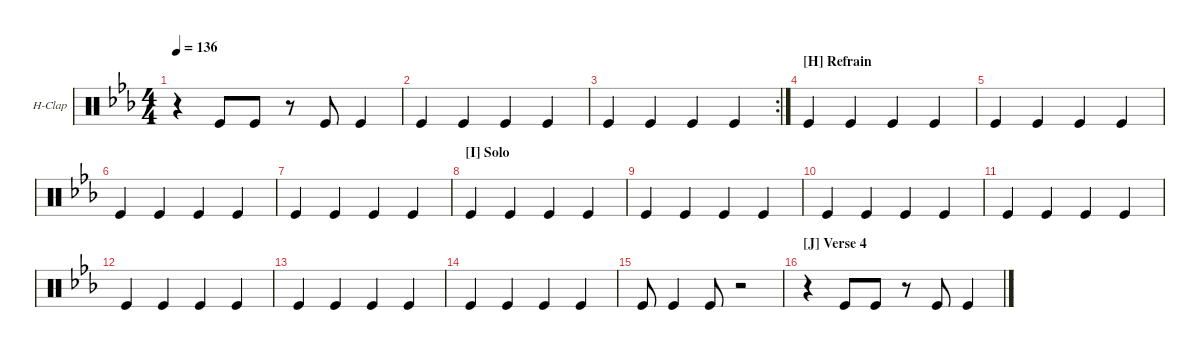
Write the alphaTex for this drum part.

\defaultSystemsLayout 4
\hideDynamics
\bracketExtendMode groupsimilarinstruments
\firstSystemTrackNameOrientation horizontal
\otherSystemsTrackNameOrientation horizontal
\track ("Hand Clap" "H-Clap") {multiBarRest instrument percussion}
\staff {score}
\articulation defaults
\ts (4 4)
\tempo 136
\clef neutral
\ks eb
r.4{dy mf} "Kick (hit)".8 "Kick (hit)".8 r.8 "Kick (hit)".8 "Kick (hit)".4 |
"Kick (hit)".4 "Kick (hit)".4 "Kick (hit)".4 "Kick (hit)".4 |
\rc 2 "Kick (hit)".4 "Kick (hit)".4 "Kick (hit)".4 "Kick (hit)".4
|
\section ("H" "Refrain")
"Kick (hit)".4 "Kick (hit)".4 "Kick (hit)".4 "Kick (hit)".4 |
"Kick (hit)".4 "Kick (hit)".4 "Kick (hit)".4 "Kick (hit)".4 |
"Kick (hit)".4 "Kick (hit)".4 "Kick (hit)".4 "Kick (hit)".4 |
"Kick (hit)".4 "Kick (hit)".4 "Kick (hit)".4 "Kick (hit)".4 |
\section ("I" "Solo")
"Kick (hit)".4 "Kick (hit)".4 "Kick (hit)".4 "Kick (hit)".4 |
"Kick (hit)".4 "Kick (hit)".4 "Kick (hit)".4 "Kick (hit)".4 |
"Kick (hit)".4 "Kick (hit)".4 "Kick (hit)".4 "Kick (hit)".4 |
"Kick (hit)".4 "Kick (hit)".4 "Kick (hit)".4 "Kick (hit)".4 |
"Kick (hit)".4 "Kick (hit)".4 "Kick (hit)".4 "Kick (hit)".4 |
"Kick (hit)".4 "Kick (hit)".4 "Kick (hit)".4 "Kick (hit)".4 |
"Kick (hit)".4 "Kick (hit)".4 "Kick (hit)".4 "Kick (hit)".4 |
"Kick (hit)".8 "Kick (hit)".4 "Kick (hit)".8 r.2 |
\section ("J" "Verse 4")
r.4 "Kick (hit)".8 "Kick (hit)".8 r.8 "Kick (hit)".8 "Kick (hit)".4
